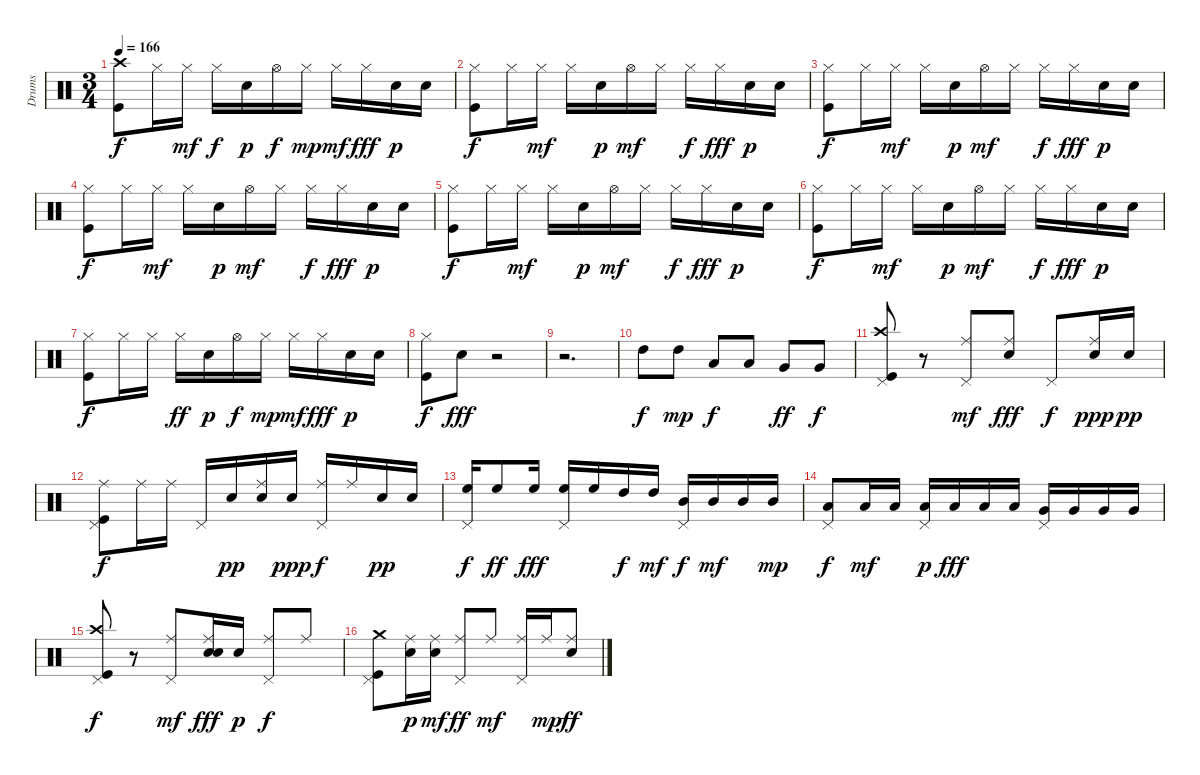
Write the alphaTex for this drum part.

\track ("Drums" "Drums") {instrument percussion}
\staff {score}
\articulation defaults
\ts (3 4)
\tempo 166
\clef neutral
\ks c
("Kick (hit)" "Crash high (hit)").8{dy f} "Hi-Hat (closed)".16 "Hi-Hat (closed)".16{dy mf} "Hi-Hat (closed)".16{dy f} "Snare (hit) 2".16{dy p} "Hi-Hat (open)".16{dy f} "Hi-Hat (closed)".16{dy mp} "Hi-Hat (closed)".16{dy mf} "Hi-Hat (closed)".16{dy fff} "Snare (hit) 2".16{dy p} "Snare (hit) 2".16 |
("Kick (hit)" "Hi-Hat (closed)").8{dy f} "Hi-Hat (closed)".16 "Hi-Hat (closed)".16{dy mf} "Hi-Hat (closed)".16 "Snare (hit) 2".16{dy p} "Hi-Hat (open)".16{dy mf} "Hi-Hat (closed)".16 "Hi-Hat (closed)".16{dy f} "Hi-Hat (closed)".16{dy fff} "Snare (hit) 2".16{dy p} "Snare (hit) 2".16 |
("Kick (hit)" "Hi-Hat (closed)").8{dy f} "Hi-Hat (closed)".16 "Hi-Hat (closed)".16{dy mf} "Hi-Hat (closed)".16 "Snare (hit) 2".16{dy p} "Hi-Hat (open)".16{dy mf} "Hi-Hat (closed)".16 "Hi-Hat (closed)".16{dy f} "Hi-Hat (closed)".16{dy fff} "Snare (hit) 2".16{dy p} "Snare (hit) 2".16 |
("Kick (hit)" "Hi-Hat (closed)").8{dy f} "Hi-Hat (closed)".16 "Hi-Hat (closed)".16{dy mf} "Hi-Hat (closed)".16 "Snare (hit) 2".16{dy p} "Hi-Hat (open)".16{dy mf} "Hi-Hat (closed)".16 "Hi-Hat (closed)".16{dy f} "Hi-Hat (closed)".16{dy fff} "Snare (hit) 2".16{dy p} "Snare (hit) 2".16 |
("Kick (hit)" "Hi-Hat (closed)").8{dy f} "Hi-Hat (closed)".16 "Hi-Hat (closed)".16{dy mf} "Hi-Hat (closed)".16 "Snare (hit) 2".16{dy p} "Hi-Hat (open)".16{dy mf} "Hi-Hat (closed)".16 "Hi-Hat (closed)".16{dy f} "Hi-Hat (closed)".16{dy fff} "Snare (hit) 2".16{dy p} "Snare (hit) 2".16 |
("Kick (hit)" "Hi-Hat (closed)").8{dy f} "Hi-Hat (closed)".16 "Hi-Hat (closed)".16{dy mf} "Hi-Hat (closed)".16 "Snare (hit) 2".16{dy p} "Hi-Hat (open)".16{dy mf} "Hi-Hat (closed)".16 "Hi-Hat (closed)".16{dy f} "Hi-Hat (closed)".16{dy fff} "Snare (hit) 2".16{dy p} "Snare (hit) 2".16 |
("Kick (hit)" "Hi-Hat (closed)").8{dy f} "Hi-Hat (closed)".16 "Hi-Hat (closed)".16 "Hi-Hat (closed)".16{dy ff} "Snare (hit) 2".16{dy p} "Hi-Hat (open)".16{dy f} "Hi-Hat (closed)".16{dy mp} "Hi-Hat (closed)".16{dy mf} "Hi-Hat (closed)".16{dy fff} "Snare (hit) 2".16{dy p} "Snare (hit) 2".16 |
("Kick (hit)" "Hi-Hat (closed)").8{dy f} "Electric Snare (hit)".8{dy fff} r.2 |
r.2{d} |
"High Tom (hit)".8{dy f} "High Tom (hit)".8{dy mp} "Low Tom (hit)".8{dy f} "Low Tom (hit)".8 "Very Low Tom (hit)".8{dy ff} "Very Low Tom (hit)".8{dy f} |
("Kick (hit)" "Pedal Hi-Hat (hit)" "Crash high (hit)").8 r.8 ("Pedal Hi-Hat (hit)" "Ride (middle)").8{dy mf} ("Electric Snare (hit)" "Ride (middle)").8{dy fff} "Pedal Hi-Hat (hit)".8{dy f} ("Snare (hit) 2" "Ride (middle)").16{dy ppp} "Snare (hit) 2".16{dy pp} |
("Kick (hit)" "Pedal Hi-Hat (hit)" "Ride (middle)").8{dy f} "Ride (middle)".16 "Ride (middle)".16 "Pedal Hi-Hat (hit)".16 "Snare (hit) 2".16{dy pp} ("Snare (hit) 2" "Ride (middle)").16 "Snare (hit) 2".16{dy ppp} ("Pedal Hi-Hat (hit)" "Ride (middle)").16{dy f} "Ride (middle)".16 "Snare (hit) 2".16{dy pp} "Snare (hit) 2".16 |
("High Floor Tom (hit)" "Pedal Hi-Hat (hit)").16{dy f} "High Floor Tom (hit)".8{dy ff} "High Floor Tom (hit)".16{dy fff} ("High Floor Tom (hit)" "Pedal Hi-Hat (hit)").16 "High Floor Tom (hit)".16 "High Tom (hit)".16{dy f} "High Tom (hit)".16{dy mf} ("Mid Tom (hit)" "Pedal Hi-Hat (hit)").16{dy f} "Mid Tom (hit)".16{dy mf} "Mid Tom (hit)".16 "Mid Tom (hit)".16{dy mp} |
("Low Tom (hit)" "Pedal Hi-Hat (hit)").8{dy f} "Low Tom (hit)".16{dy mf} "Low Tom (hit)".16 ("Low Tom (hit)" "Pedal Hi-Hat (hit)").16{dy p} "Low Tom (hit)".16{dy fff} "Low Tom (hit)".16 "Low Tom (hit)".16 ("Very Low Tom (hit)" "Pedal Hi-Hat (hit)").16 "Very Low Tom (hit)".16 "Very Low Tom (hit)".16 "Very Low Tom (hit)".16 |
("Kick (hit)" "Pedal Hi-Hat (hit)" "Crash high (hit)").8{dy f} r.8 ("Pedal Hi-Hat (hit)" "Ride (middle)").8{dy mf} ("Snare (hit) 2" "Electric Snare (hit)" "Ride (middle)").16{dy fff} "Snare (hit) 2".16{dy p} ("Pedal Hi-Hat (hit)" "Ride (middle)").8{dy f} "Ride (middle)".8 |
("Kick (hit)" "Pedal Hi-Hat (hit)" "Crash medium (hit)").8 ("Snare (hit) 2" "Ride (middle)").16{dy p} ("Snare (hit) 2" "Ride (middle)").16{dy mf} ("Pedal Hi-Hat (hit)" "Ride (middle)").8{dy ff} "Ride (middle)".8{dy mf} ("Pedal Hi-Hat (hit)" "Ride (middle)").16 "Ride (middle)".16{dy mp} ("Snare (hit) 2" "Ride (middle)").8{dy ff}
